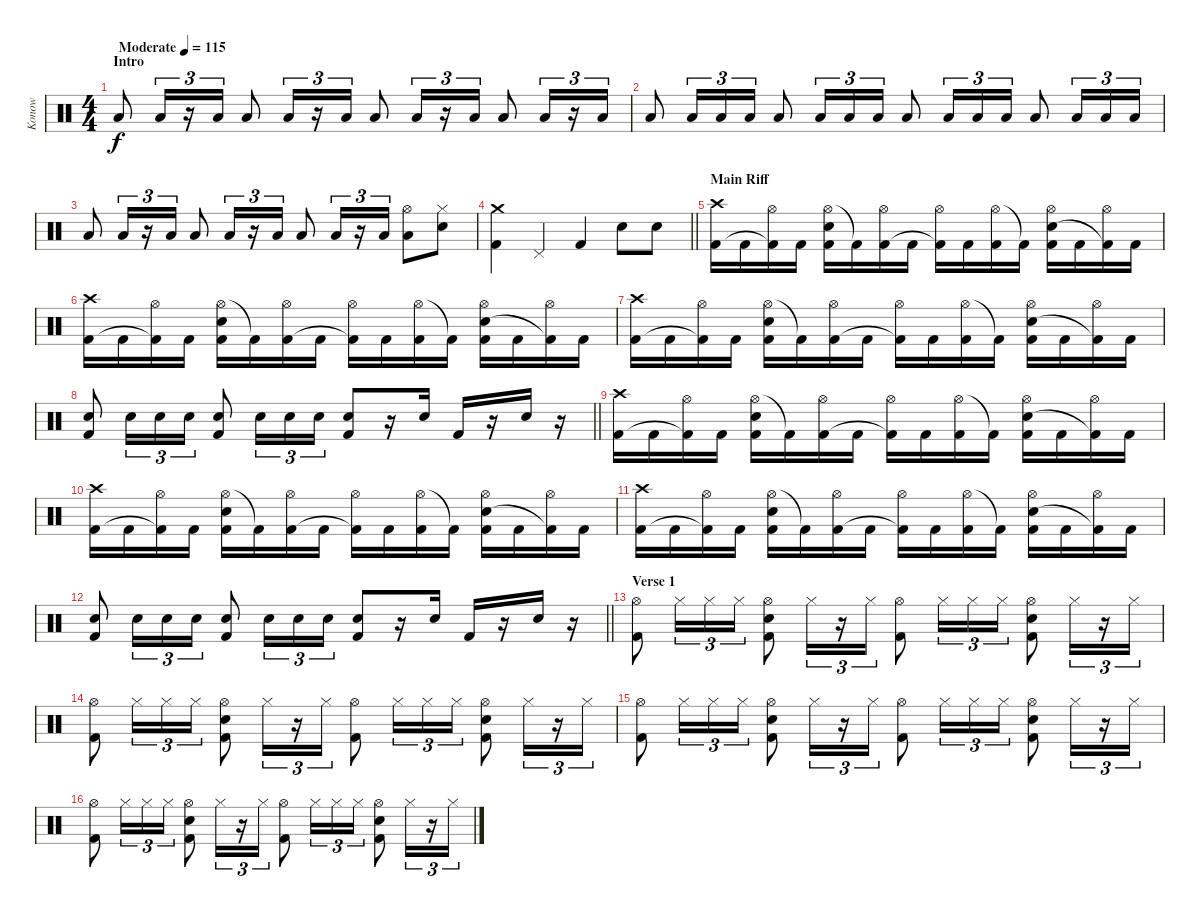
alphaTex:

\track ("Konow" "Konow") {instrument percussion}
\staff {score}
\articulation defaults
\ts (4 4)
\section ("" "Intro")
\tempo (115 "Moderate")
\clef neutral
\ks c "Low Tom (hit)".8{dy f} "Low Tom (hit)".16{tu (3 2)}
r.16{tu (3 2)} "Low Tom (hit)".16{tu (3 2)} "Low Tom (hit)".8 "Low Tom (hit)".16{tu (3 2)} r.16{tu (3 2)} "Low Tom (hit)".16{tu (3 2)} "Low Tom (hit)".8 "Low Tom (hit)".16{tu (3 2)} r.16{tu (3 2)} "Low Tom (hit)".16{tu (3 2)} "Low Tom (hit)".8 "Low Tom (hit)".16{tu (3 2)} r.16{tu (3 2)} "Low Tom (hit)".16{tu (3 2)} |
"Low Tom (hit)".8 "Low Tom (hit)".16{tu (3 2)} "Low Tom (hit)".16{tu (3 2)} "Low Tom (hit)".16{tu (3 2)} "Low Tom (hit)".8 "Low Tom (hit)".16{tu (3 2)} "Low Tom (hit)".16{tu (3 2)} "Low Tom (hit)".16{tu (3 2)} "Low Tom (hit)".8 "Low Tom (hit)".16{tu (3 2)} "Low Tom (hit)".16{tu (3 2)} "Low Tom (hit)".16{tu (3 2)} "Low Tom (hit)".8 "Low Tom (hit)".16{tu (3 2)} "Low Tom (hit)".16{tu (3 2)} "Low Tom (hit)".16{tu (3 2)} |
"Low Tom (hit)".8 "Low Tom (hit)".16{tu (3 2)} r.16{tu (3 2)} "Low Tom (hit)".16{tu (3 2)} "Low Tom (hit)".8 "Low Tom (hit)".16{tu (3 2)} r.16{tu (3 2)} "Low Tom (hit)".16{tu (3 2)} "Low Tom (hit)".8 "Low Tom (hit)".16{tu (3 2)} r.16{tu (3 2)} "Low Tom (hit)".16{tu (3 2)} ("Hi-Hat (open)" "Low Tom (hit)").8 ("Hi-Hat (closed)" "Electric Snare (hit)").8 |
\barLineRight lightlight
("Crash medium (hit)" "Kick (hit) 2").4 "Pedal Hi-Hat (hit)".4 "Kick (hit) 2".4 "Electric Snare (hit)".8 "Electric Snare (hit)".8 |
\section ("" "Main Riff")
("Crash high (hit)" "Kick (hit) 2").16 "Kick (hit) 2".16 ("Hi-Hat (open)" "Kick (hit) 2"{t}).16 "Kick (hit) 2".16 ("Hi-Hat (open)" "Electric Snare (hit)" "Kick (hit) 2").16 "Kick (hit) 2"{t}.16 ("Hi-Hat (open)" "Kick (hit) 2").16 "Kick (hit) 2".16 ("Hi-Hat (open)" "Kick (hit) 2"{t}).16 "Kick (hit) 2".16 ("Hi-Hat (open)" "Kick (hit) 2").16 "Kick (hit) 2"{t}.16 ("Hi-Hat (open)" "Electric Snare (hit)" "Kick (hit) 2").16 "Kick (hit) 2".16 ("Hi-Hat (open)" "Kick (hit) 2"{t}).16 "Kick (hit) 2".16 |
("Crash high (hit)" "Kick (hit) 2").16 "Kick (hit) 2".16 ("Hi-Hat (open)" "Kick (hit) 2"{t}).16 "Kick (hit) 2".16 ("Hi-Hat (open)" "Electric Snare (hit)" "Kick (hit) 2").16 "Kick (hit) 2"{t}.16 ("Hi-Hat (open)" "Kick (hit) 2").16 "Kick (hit) 2".16 ("Hi-Hat (open)" "Kick (hit) 2"{t}).16 "Kick (hit) 2".16 ("Hi-Hat (open)" "Kick (hit) 2").16 "Kick (hit) 2"{t}.16 ("Hi-Hat (open)" "Electric Snare (hit)" "Kick (hit) 2").16 "Kick (hit) 2".16 ("Hi-Hat (open)" "Kick (hit) 2"{t}).16 "Kick (hit) 2".16 |
("Crash high (hit)" "Kick (hit) 2").16 "Kick (hit) 2".16 ("Hi-Hat (open)" "Kick (hit) 2"{t}).16 "Kick (hit) 2".16 ("Hi-Hat (open)" "Electric Snare (hit)" "Kick (hit) 2").16 "Kick (hit) 2"{t}.16 ("Hi-Hat (open)" "Kick (hit) 2").16 "Kick (hit) 2".16 ("Hi-Hat (open)" "Kick (hit) 2"{t}).16 "Kick (hit) 2".16 ("Hi-Hat (open)" "Kick (hit) 2").16 "Kick (hit) 2"{t}.16 ("Hi-Hat (open)" "Electric Snare (hit)" "Kick (hit) 2").16 "Kick (hit) 2".16 ("Hi-Hat (open)" "Kick (hit) 2"{t}).16 "Kick (hit) 2".16 |
\barLineRight lightlight
("Kick (hit) 2" "Electric Snare (hit)").8 "Electric Snare (hit)".16{tu (3 2)} "Electric Snare (hit)".16{tu (3 2)} "Electric Snare (hit)".16{tu (3 2)} ("Kick (hit) 2" "Electric Snare (hit)").8 "Electric Snare (hit)".16{tu (3 2)} "Electric Snare (hit)".16{tu (3 2)} "Electric Snare (hit)".16{tu (3 2)} ("Kick (hit) 2" "Electric Snare (hit)").8 r.16 "Electric Snare (hit)".16 "Kick (hit) 2".16 r.16 "Electric Snare (hit)".16 r.16 |
("Crash high (hit)" "Kick (hit) 2").16 "Kick (hit) 2".16 ("Hi-Hat (open)" "Kick (hit) 2"{t}).16 "Kick (hit) 2".16 ("Hi-Hat (open)" "Electric Snare (hit)" "Kick (hit) 2").16 "Kick (hit) 2"{t}.16 ("Hi-Hat (open)" "Kick (hit) 2").16 "Kick (hit) 2".16 ("Hi-Hat (open)" "Kick (hit) 2"{t}).16 "Kick (hit) 2".16 ("Hi-Hat (open)" "Kick (hit) 2").16 "Kick (hit) 2"{t}.16 ("Hi-Hat (open)" "Electric Snare (hit)" "Kick (hit) 2").16 "Kick (hit) 2".16 ("Hi-Hat (open)" "Kick (hit) 2"{t}).16 "Kick (hit) 2".16 |
("Crash high (hit)" "Kick (hit) 2").16 "Kick (hit) 2".16 ("Hi-Hat (open)" "Kick (hit) 2"{t}).16 "Kick (hit) 2".16 ("Hi-Hat (open)" "Electric Snare (hit)" "Kick (hit) 2").16 "Kick (hit) 2"{t}.16 ("Hi-Hat (open)" "Kick (hit) 2").16 "Kick (hit) 2".16 ("Hi-Hat (open)" "Kick (hit) 2"{t}).16 "Kick (hit) 2".16 ("Hi-Hat (open)" "Kick (hit) 2").16 "Kick (hit) 2"{t}.16 ("Hi-Hat (open)" "Electric Snare (hit)" "Kick (hit) 2").16 "Kick (hit) 2".16 ("Hi-Hat (open)" "Kick (hit) 2"{t}).16 "Kick (hit) 2".16 |
("Crash high (hit)" "Kick (hit) 2").16 "Kick (hit) 2".16 ("Hi-Hat (open)" "Kick (hit) 2"{t}).16 "Kick (hit) 2".16 ("Hi-Hat (open)" "Electric Snare (hit)" "Kick (hit) 2").16 "Kick (hit) 2"{t}.16 ("Hi-Hat (open)" "Kick (hit) 2").16 "Kick (hit) 2".16 ("Hi-Hat (open)" "Kick (hit) 2"{t}).16 "Kick (hit) 2".16 ("Hi-Hat (open)" "Kick (hit) 2").16 "Kick (hit) 2"{t}.16 ("Hi-Hat (open)" "Electric Snare (hit)" "Kick (hit) 2").16 "Kick (hit) 2".16 ("Hi-Hat (open)" "Kick (hit) 2"{t}).16 "Kick (hit) 2".16 |
\barLineRight lightlight
("Kick (hit) 2" "Electric Snare (hit)").8 "Electric Snare (hit)".16{tu (3 2)} "Electric Snare (hit)".16{tu (3 2)} "Electric Snare (hit)".16{tu (3 2)} ("Kick (hit) 2" "Electric Snare (hit)").8 "Electric Snare (hit)".16{tu (3 2)} "Electric Snare (hit)".16{tu (3 2)} "Electric Snare (hit)".16{tu (3 2)} ("Kick (hit) 2" "Electric Snare (hit)").8 r.16 "Electric Snare (hit)".16 "Kick (hit) 2".16 r.16 "Electric Snare (hit)".16 r.16 |
\section ("" "Verse 1")
("Hi-Hat (open)" "Kick (hit) 2").8 "Hi-Hat (closed)".16{tu (3 2)} "Hi-Hat (closed)".16{tu (3 2)} "Hi-Hat (closed)".16{tu (3 2)} ("Electric Snare (hit)" "Hi-Hat (open)" "Kick (hit) 2").8 "Hi-Hat (closed)".16{tu (3 2)} r.16{tu (3 2)} "Hi-Hat (closed)".16{tu (3 2)} ("Hi-Hat (open)" "Kick (hit) 2").8 "Hi-Hat (closed)".16{tu (3 2)} "Hi-Hat (closed)".16{tu (3 2)} "Hi-Hat (closed)".16{tu (3 2)} ("Electric Snare (hit)" "Hi-Hat (open)" "Kick (hit) 2").8 "Hi-Hat (closed)".16{tu (3 2)} r.16{tu (3 2)} "Hi-Hat (closed)".16{tu (3 2)} |
("Hi-Hat (open)" "Kick (hit) 2").8 "Hi-Hat (closed)".16{tu (3 2)} "Hi-Hat (closed)".16{tu (3 2)} "Hi-Hat (closed)".16{tu (3 2)} ("Electric Snare (hit)" "Hi-Hat (open)" "Kick (hit) 2").8 "Hi-Hat (closed)".16{tu (3 2)} r.16{tu (3 2)} "Hi-Hat (closed)".16{tu (3 2)} ("Hi-Hat (open)" "Kick (hit) 2").8 "Hi-Hat (closed)".16{tu (3 2)} "Hi-Hat (closed)".16{tu (3 2)} "Hi-Hat (closed)".16{tu (3 2)} ("Electric Snare (hit)" "Hi-Hat (open)" "Kick (hit) 2").8 "Hi-Hat (closed)".16{tu (3 2)} r.16{tu (3 2)} "Hi-Hat (closed)".16{tu (3 2)} |
("Hi-Hat (open)" "Kick (hit) 2").8 "Hi-Hat (closed)".16{tu (3 2)} "Hi-Hat (closed)".16{tu (3 2)} "Hi-Hat (closed)".16{tu (3 2)} ("Electric Snare (hit)" "Hi-Hat (open)" "Kick (hit) 2").8 "Hi-Hat (closed)".16{tu (3 2)} r.16{tu (3 2)} "Hi-Hat (closed)".16{tu (3 2)} ("Hi-Hat (open)" "Kick (hit) 2").8 "Hi-Hat (closed)".16{tu (3 2)} "Hi-Hat (closed)".16{tu (3 2)} "Hi-Hat (closed)".16{tu (3 2)} ("Electric Snare (hit)" "Hi-Hat (open)" "Kick (hit) 2").8 "Hi-Hat (closed)".16{tu (3 2)} r.16{tu (3 2)} "Hi-Hat (closed)".16{tu (3 2)} |
("Hi-Hat (open)" "Kick (hit) 2").8 "Hi-Hat (closed)".16{tu (3 2)} "Hi-Hat (closed)".16{tu (3 2)} "Hi-Hat (closed)".16{tu (3 2)} ("Electric Snare (hit)" "Hi-Hat (open)" "Kick (hit) 2").8 "Hi-Hat (closed)".16{tu (3 2)} r.16{tu (3 2)} "Hi-Hat (closed)".16{tu (3 2)} ("Hi-Hat (open)" "Kick (hit) 2").8 "Hi-Hat (closed)".16{tu (3 2)} "Hi-Hat (closed)".16{tu (3 2)} "Hi-Hat (closed)".16{tu (3 2)} ("Electric Snare (hit)" "Hi-Hat (open)" "Kick (hit) 2").8 "Hi-Hat (closed)".16{tu (3 2)} r.16{tu (3 2)} "Hi-Hat (closed)".16{tu (3 2)}
